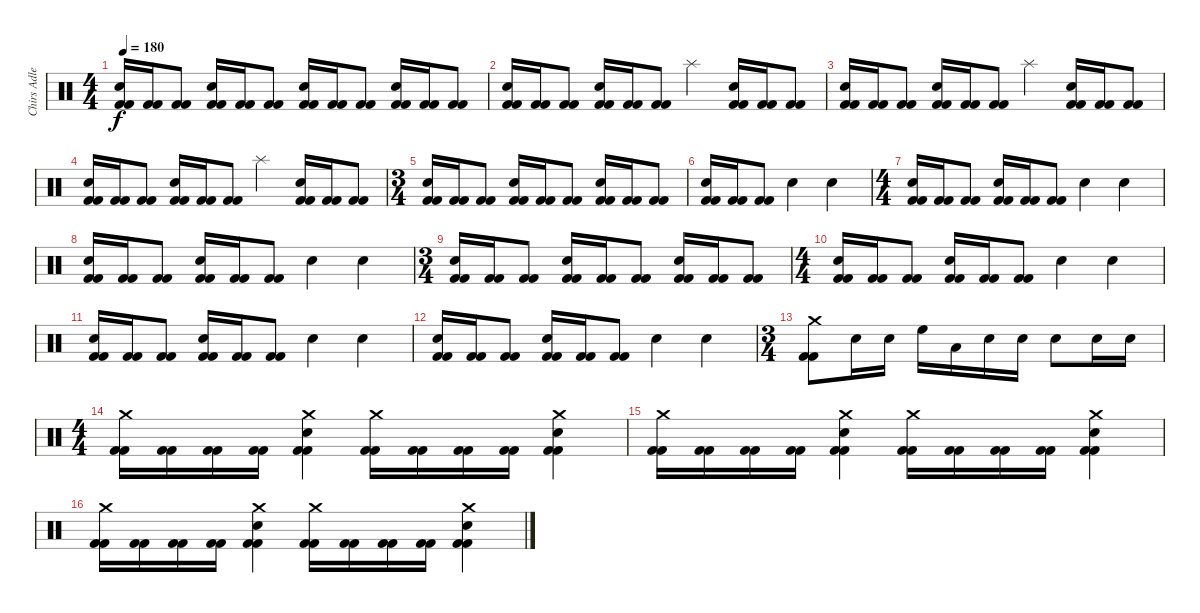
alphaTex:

\track ("Chirs Adler" "Chirs Adle") {instrument percussion}
\staff {score}
\articulation defaults
\ts (4 4)
\tempo 180
\clef neutral
\ks c
("Electric Snare (hit)" "Kick (hit) 2" "Kick (hit) 2").16{dy f} ("Kick (hit) 2" "Kick (hit) 2").16 ("Kick (hit) 2" "Kick (hit) 2").8 ("Electric Snare (hit)" "Kick (hit) 2" "Kick (hit) 2").16 ("Kick (hit) 2" "Kick (hit) 2").16 ("Kick (hit) 2" "Kick (hit) 2").8 ("Electric Snare (hit)" "Kick (hit) 2" "Kick (hit) 2").16 ("Kick (hit) 2" "Kick (hit) 2").16 ("Kick (hit) 2" "Kick (hit) 2").8 ("Electric Snare (hit)" "Kick (hit) 2" "Kick (hit) 2").16 ("Kick (hit) 2" "Kick (hit) 2").16 ("Kick (hit) 2" "Kick (hit) 2").8 |
("Electric Snare (hit)" "Kick (hit) 2" "Kick (hit) 2").16 ("Kick (hit) 2" "Kick (hit) 2").16 ("Kick (hit) 2" "Kick (hit) 2").8 ("Electric Snare (hit)" "Kick (hit) 2" "Kick (hit) 2").16 ("Kick (hit) 2" "Kick (hit) 2").16 ("Kick (hit) 2" "Kick (hit) 2").8 "Splash (hit)".4 ("Electric Snare (hit)" "Kick (hit) 2" "Kick (hit) 2").16 ("Kick (hit) 2" "Kick (hit) 2").16 ("Kick (hit) 2" "Kick (hit) 2").8 |
("Electric Snare (hit)" "Kick (hit) 2" "Kick (hit) 2").16 ("Kick (hit) 2" "Kick (hit) 2").16 ("Kick (hit) 2" "Kick (hit) 2").8 ("Electric Snare (hit)" "Kick (hit) 2" "Kick (hit) 2").16 ("Kick (hit) 2" "Kick (hit) 2").16 ("Kick (hit) 2" "Kick (hit) 2").8 "Splash (hit)".4 ("Electric Snare (hit)" "Kick (hit) 2" "Kick (hit) 2").16 ("Kick (hit) 2" "Kick (hit) 2").16 ("Kick (hit) 2" "Kick (hit) 2").8 |
("Electric Snare (hit)" "Kick (hit) 2" "Kick (hit) 2").16 ("Kick (hit) 2" "Kick (hit) 2").16 ("Kick (hit) 2" "Kick (hit) 2").8 ("Electric Snare (hit)" "Kick (hit) 2" "Kick (hit) 2").16 ("Kick (hit) 2" "Kick (hit) 2").16 ("Kick (hit) 2" "Kick (hit) 2").8 "Splash (hit)".4 ("Electric Snare (hit)" "Kick (hit) 2" "Kick (hit) 2").16 ("Kick (hit) 2" "Kick (hit) 2").16 ("Kick (hit) 2" "Kick (hit) 2").8 |
\ts (3 4)
("Electric Snare (hit)" "Kick (hit) 2" "Kick (hit) 2").16 ("Kick (hit) 2" "Kick (hit) 2").16 ("Kick (hit) 2" "Kick (hit) 2").8 ("Electric Snare (hit)" "Kick (hit) 2" "Kick (hit) 2").16 ("Kick (hit) 2" "Kick (hit) 2").16 ("Kick (hit) 2" "Kick (hit) 2").8 ("Electric Snare (hit)" "Kick (hit) 2" "Kick (hit) 2").16 ("Kick (hit) 2" "Kick (hit) 2").16 ("Kick (hit) 2" "Kick (hit) 2").8 |
("Electric Snare (hit)" "Kick (hit) 2" "Kick (hit) 2").16 ("Kick (hit) 2" "Kick (hit) 2").16 ("Kick (hit) 2" "Kick (hit) 2").8 "Electric Snare (hit)".4 "Electric Snare (hit)".4 |
\ts (4 4)
("Electric Snare (hit)" "Kick (hit) 2" "Kick (hit) 2").16 ("Kick (hit) 2" "Kick (hit) 2").16 ("Kick (hit) 2" "Kick (hit) 2").8 ("Electric Snare (hit)" "Kick (hit) 2" "Kick (hit) 2").16 ("Kick (hit) 2" "Kick (hit) 2").16 ("Kick (hit) 2" "Kick (hit) 2").8 "Electric Snare (hit)".4 "Electric Snare (hit)".4 |
("Electric Snare (hit)" "Kick (hit) 2" "Kick (hit) 2").16 ("Kick (hit) 2" "Kick (hit) 2").16 ("Kick (hit) 2" "Kick (hit) 2").8 ("Electric Snare (hit)" "Kick (hit) 2" "Kick (hit) 2").16 ("Kick (hit) 2" "Kick (hit) 2").16 ("Kick (hit) 2" "Kick (hit) 2").8 "Electric Snare (hit)".4 "Electric Snare (hit)".4 |
\ts (3 4)
("Electric Snare (hit)" "Kick (hit) 2" "Kick (hit) 2").16 ("Kick (hit) 2" "Kick (hit) 2").16 ("Kick (hit) 2" "Kick (hit) 2").8 ("Electric Snare (hit)" "Kick (hit) 2" "Kick (hit) 2").16 ("Kick (hit) 2" "Kick (hit) 2").16 ("Kick (hit) 2" "Kick (hit) 2").8 ("Electric Snare (hit)" "Kick (hit) 2" "Kick (hit) 2").16 ("Kick (hit) 2" "Kick (hit) 2").16 ("Kick (hit) 2" "Kick (hit) 2").8 |
\ts (4 4)
("Electric Snare (hit)" "Kick (hit) 2" "Kick (hit) 2").16 ("Kick (hit) 2" "Kick (hit) 2").16 ("Kick (hit) 2" "Kick (hit) 2").8 ("Electric Snare (hit)" "Kick (hit) 2" "Kick (hit) 2").16 ("Kick (hit) 2" "Kick (hit) 2").16 ("Kick (hit) 2" "Kick (hit) 2").8 "Electric Snare (hit)".4 "Electric Snare (hit)".4 |
("Electric Snare (hit)" "Kick (hit) 2" "Kick (hit) 2").16 ("Kick (hit) 2" "Kick (hit) 2").16 ("Kick (hit) 2" "Kick (hit) 2").8 ("Electric Snare (hit)" "Kick (hit) 2" "Kick (hit) 2").16 ("Kick (hit) 2" "Kick (hit) 2").16 ("Kick (hit) 2" "Kick (hit) 2").8 "Electric Snare (hit)".4 "Electric Snare (hit)".4 |
("Electric Snare (hit)" "Kick (hit) 2" "Kick (hit) 2").16 ("Kick (hit) 2" "Kick (hit) 2").16 ("Kick (hit) 2" "Kick (hit) 2").8 ("Electric Snare (hit)" "Kick (hit) 2" "Kick (hit) 2").16 ("Kick (hit) 2" "Kick (hit) 2").16 ("Kick (hit) 2" "Kick (hit) 2").8 "Electric Snare (hit)".4 "Electric Snare (hit)".4 |
\ts (3 4)
("Crash medium (hit)" "Kick (hit) 2" "Kick (hit) 2").8 "Electric Snare (hit)".16 "Electric Snare (hit)".16 "High Floor Tom (hit)".16 "Low Tom (hit)".16 "Electric Snare (hit)".16 "Electric Snare (hit)".16 "Electric Snare (hit)".8 "Electric Snare (hit)".16 "Electric Snare (hit)".16 |
\ts (4 4)
\section ("" "")
("Crash medium (hit)" "Kick (hit) 2" "Kick (hit) 2").16 ("Kick (hit) 2" "Kick (hit) 2").16 ("Kick (hit) 2" "Kick (hit) 2").16 ("Kick (hit) 2" "Kick (hit) 2").16 ("Crash medium (hit)" "Electric Snare (hit)" "Kick (hit) 2" "Kick (hit) 2").4 ("Crash medium (hit)" "Kick (hit) 2" "Kick (hit) 2").16 ("Kick (hit) 2" "Kick (hit) 2").16 ("Kick (hit) 2" "Kick (hit) 2").16 ("Kick (hit) 2" "Kick (hit) 2").16 ("Crash medium (hit)" "Electric Snare (hit)" "Kick (hit) 2" "Kick (hit) 2").4 |
("Crash medium (hit)" "Kick (hit) 2" "Kick (hit) 2").16 ("Kick (hit) 2" "Kick (hit) 2").16 ("Kick (hit) 2" "Kick (hit) 2").16 ("Kick (hit) 2" "Kick (hit) 2").16 ("Crash medium (hit)" "Electric Snare (hit)" "Kick (hit) 2" "Kick (hit) 2").4 ("Crash medium (hit)" "Kick (hit) 2" "Kick (hit) 2").16 ("Kick (hit) 2" "Kick (hit) 2").16 ("Kick (hit) 2" "Kick (hit) 2").16 ("Kick (hit) 2" "Kick (hit) 2").16 ("Crash medium (hit)" "Electric Snare (hit)" "Kick (hit) 2" "Kick (hit) 2").4 |
("Crash medium (hit)" "Kick (hit) 2" "Kick (hit) 2").16 ("Kick (hit) 2" "Kick (hit) 2").16 ("Kick (hit) 2" "Kick (hit) 2").16 ("Kick (hit) 2" "Kick (hit) 2").16 ("Crash medium (hit)" "Electric Snare (hit)" "Kick (hit) 2" "Kick (hit) 2").4 ("Crash medium (hit)" "Kick (hit) 2" "Kick (hit) 2").16 ("Kick (hit) 2" "Kick (hit) 2").16 ("Kick (hit) 2" "Kick (hit) 2").16 ("Kick (hit) 2" "Kick (hit) 2").16 ("Crash medium (hit)" "Electric Snare (hit)" "Kick (hit) 2" "Kick (hit) 2").4
